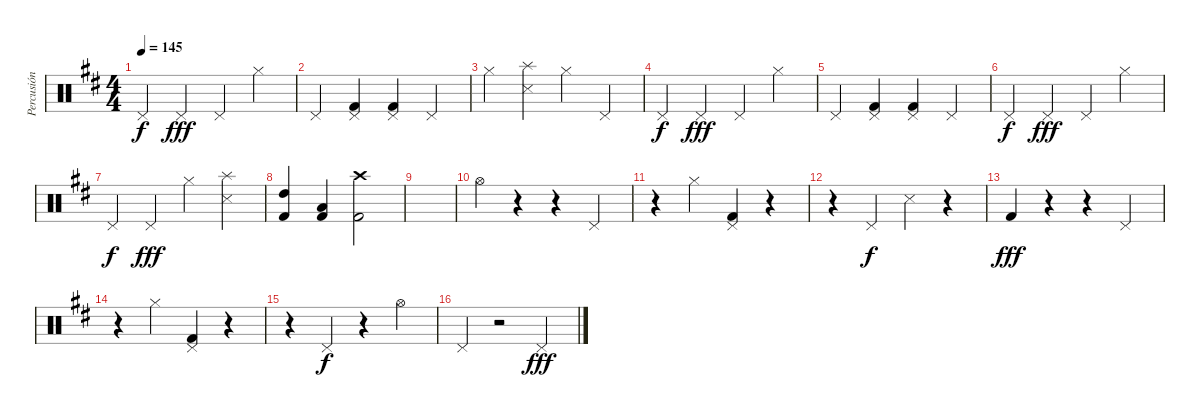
\track ("Percusión" "Percusión") {instrument percussion}
\staff {score}
\articulation defaults
\ts (4 4)
\tempo 145
\clef neutral
\ks d "Pedal Hi-Hat (hit)".4{dy f} "Pedal Hi-Hat (hit)".4{dy fff} "Pedal Hi-Hat (hit)".4 "Hi-Hat (closed)".4
|
"Pedal Hi-Hat (hit)".4 ("Pedal Hi-Hat (hit)" "Kick (hit) 2").4 ("Pedal Hi-Hat (hit)" "Kick (hit) 2").4 "Pedal Hi-Hat (hit)".4 |
"Hi-Hat (closed)".4 ("Splash (hit)" "Snare (side stick) 3").4{volume 16} "Hi-Hat (closed)".4 "Pedal Hi-Hat (hit)".4 |
"Pedal Hi-Hat (hit)".4{dy f} "Pedal Hi-Hat (hit)".4{dy fff} "Pedal Hi-Hat (hit)".4 "Hi-Hat (closed)".4 |
"Pedal Hi-Hat (hit)".4 ("Pedal Hi-Hat (hit)" "Kick (hit) 2").4 ("Pedal Hi-Hat (hit)" "Kick (hit) 2").4 "Pedal Hi-Hat (hit)".4 |
"Pedal Hi-Hat (hit)".4{dy f} "Pedal Hi-Hat (hit)".4{dy fff} "Pedal Hi-Hat (hit)".4 "Hi-Hat (closed)".4 |
"Pedal Hi-Hat (hit)".4{dy f} "Pedal Hi-Hat (hit)".4{dy fff} "Hi-Hat (closed)".4 ("Splash (hit)" "Snare (side stick) 3").4{volume 16} |
("High Tom (hit)" "Kick (hit) 2").4 ("Low Tom (hit)" "Kick (hit) 2").4 ("Crash high (hit)" "Kick (hit) 2").2 |
|
"Hi-Hat (open)".4 r.4 r.4 "Pedal Hi-Hat (hit)".4 |
r.4 "Hi-Hat (closed)".4 ("Pedal Hi-Hat (hit)" "Kick (hit) 2").4 r.4 |
r.4 "Pedal Hi-Hat (hit)".4{dy f} "Snare (side stick) 3".4 r.4 |
"Kick (hit) 2".4{dy fff} r.4 r.4 "Pedal Hi-Hat (hit)".4 |
r.4 "Hi-Hat (closed)".4 ("Pedal Hi-Hat (hit)" "Kick (hit) 2").4 r.4 |
r.4 "Pedal Hi-Hat (hit)".4{dy f} r.4 "Hi-Hat (open)".4 |
"Pedal Hi-Hat (hit)".4 r.2 "Pedal Hi-Hat (hit)".4{dy fff}
